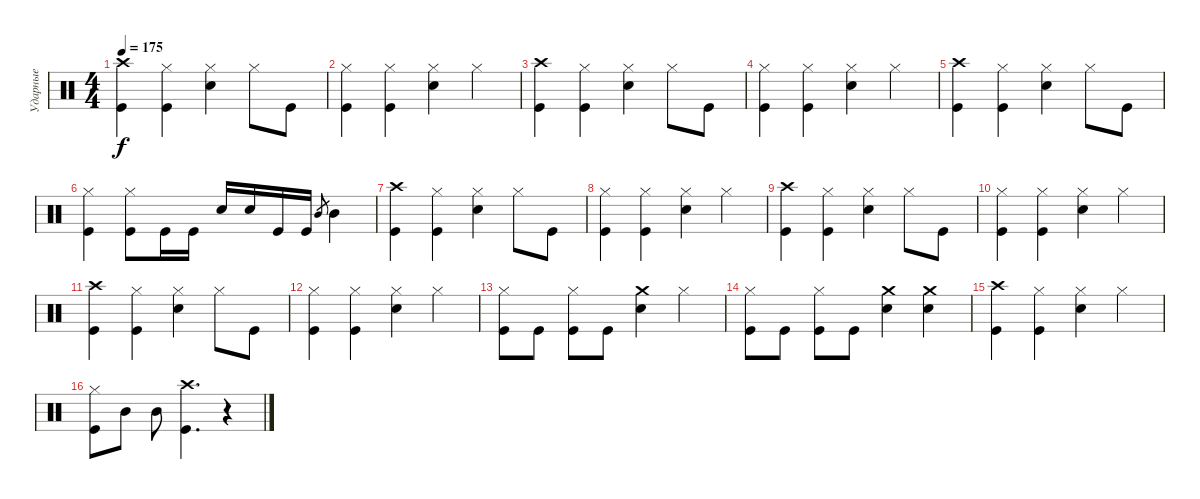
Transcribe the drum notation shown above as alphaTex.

\track ("Ударные" "Ударные") {instrument percussion}
\staff {score}
\articulation defaults
\ts (4 4)
\tempo 175
\clef neutral
\ks c
("Crash high (hit)" "Kick (hit)").4{dy f} ("Hi-Hat (closed)" "Kick (hit)").4 ("Hi-Hat (closed)" "Electric Snare (hit)").4 "Hi-Hat (closed)".8 "Kick (hit)".8 |
("Kick (hit)" "Hi-Hat (closed)").4 ("Hi-Hat (closed)" "Kick (hit)").4 ("Hi-Hat (closed)" "Electric Snare (hit)").4 "Hi-Hat (closed)".4 |
("Crash high (hit)" "Kick (hit)").4 ("Hi-Hat (closed)" "Kick (hit)").4 ("Hi-Hat (closed)" "Electric Snare (hit)").4 "Hi-Hat (closed)".8 "Kick (hit)".8 |
("Kick (hit)" "Hi-Hat (closed)").4 ("Hi-Hat (closed)" "Kick (hit)").4 ("Hi-Hat (closed)" "Electric Snare (hit)").4 "Hi-Hat (closed)".4 |
("Crash high (hit)" "Kick (hit)").4 ("Hi-Hat (closed)" "Kick (hit)").4 ("Hi-Hat (closed)" "Electric Snare (hit)").4 "Hi-Hat (closed)".8 "Kick (hit)".8 |
("Kick (hit)" "Hi-Hat (closed)").4 ("Hi-Hat (closed)" "Kick (hit)").8 "Kick (hit)".16 "Kick (hit)".16 "Electric Snare (hit)".16 "Electric Snare (hit)".16 "Kick (hit)".16 "Kick (hit)".16 "Mid Tom (hit)".8{gr} "Mid Tom (hit)".4 |
("Crash high (hit)" "Kick (hit)").4 ("Hi-Hat (closed)" "Kick (hit)").4 ("Hi-Hat (closed)" "Electric Snare (hit)").4 "Hi-Hat (closed)".8 "Kick (hit)".8 |
("Kick (hit)" "Hi-Hat (closed)").4 ("Hi-Hat (closed)" "Kick (hit)").4 ("Hi-Hat (closed)" "Electric Snare (hit)").4 "Hi-Hat (closed)".4 |
("Crash high (hit)" "Kick (hit)").4 ("Hi-Hat (closed)" "Kick (hit)").4 ("Hi-Hat (closed)" "Electric Snare (hit)").4 "Hi-Hat (closed)".8 "Kick (hit)".8 |
("Kick (hit)" "Hi-Hat (closed)").4 ("Hi-Hat (closed)" "Kick (hit)").4 ("Hi-Hat (closed)" "Electric Snare (hit)").4 "Hi-Hat (closed)".4 |
("Crash high (hit)" "Kick (hit)").4 ("Hi-Hat (closed)" "Kick (hit)").4 ("Hi-Hat (closed)" "Electric Snare (hit)").4 "Hi-Hat (closed)".8 "Kick (hit)".8 |
("Kick (hit)" "Hi-Hat (closed)").4 ("Hi-Hat (closed)" "Kick (hit)").4 ("Hi-Hat (closed)" "Electric Snare (hit)").4 "Hi-Hat (closed)".4 |
("Hi-Hat (closed)" "Kick (hit)").8 "Kick (hit)".8 ("Hi-Hat (closed)" "Kick (hit)").8 "Kick (hit)".8 ("Crash medium (hit)" "Electric Snare (hit)").4 "Hi-Hat (closed)".4 |
("Hi-Hat (closed)" "Kick (hit)").8 "Kick (hit)".8 ("Hi-Hat (closed)" "Kick (hit)").8 "Kick (hit)".8 ("Crash medium (hit)" "Electric Snare (hit)").4 ("Crash medium (hit)" "Electric Snare (hit)").4 |
("Crash high (hit)" "Kick (hit)").4 ("Hi-Hat (closed)" "Kick (hit)").4 ("Hi-Hat (closed)" "Electric Snare (hit)").4 "Hi-Hat (closed)".4 |
("Hi-Hat (closed)" "Kick (hit)").8 "Mid Tom (hit)".8 "Mid Tom (hit)".8 ("Crash high (hit)" "Kick (hit)").4{d} r.4
